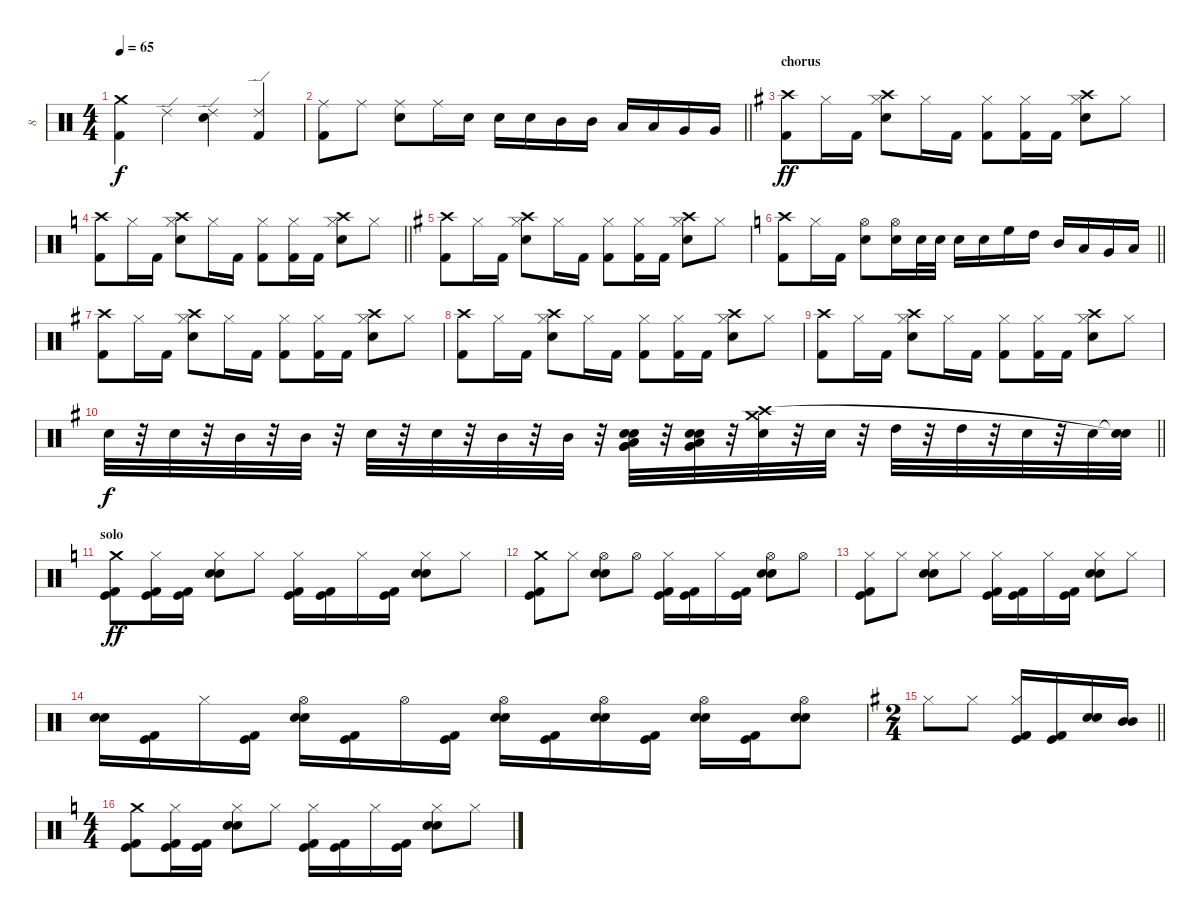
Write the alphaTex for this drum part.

\track ("8" "8") {instrument percussion}
\staff {score}
\articulation defaults
\ts (4 4)
\tempo 65
\clef neutral
\ks c
("Crash medium (hit)" "Kick (hit) 2").4{dy f} "Ride (edge) 2".4 ("Ride (edge) 2" "Electric Snare (hit)").4 ("Ride (edge) 2" "Kick (hit) 2").4 |
\barLineRight lightlight
("Ride (middle)" "Kick (hit) 2").8 "Ride (middle)".8 ("Ride (middle)" "Electric Snare (hit)").8 "Ride (middle)".16 "Electric Snare (hit)".16 "Electric Snare (hit)".16 "Electric Snare (hit)".16 "Mid Tom (hit)".16 "Mid Tom (hit)".16 "Low Tom (hit)".16 "Low Tom (hit)".16 "Very Low Tom (hit)".16 "Very Low Tom (hit)".16 |
\section ("" "chorus")
\ks eminor
("Kick (hit) 2" "Crash high (hit)").8{dy ff} "Hi-Hat (closed)".16 "Kick (hit) 2".16 ("Snare (hit) 2" "Hi-Hat (closed)" "Crash high (hit)").8 "Hi-Hat (closed)".16 "Kick (hit) 2".16 ("Kick (hit) 2" "Hi-Hat (closed)").8 ("Kick (hit) 2" "Hi-Hat (closed)").16 "Kick (hit) 2".16 ("Snare (hit) 2" "Hi-Hat (closed)" "Crash high (hit)").8 "Hi-Hat (closed)".8 |
\barLineRight lightlight
\ks c
("Kick (hit) 2" "Crash high (hit)").8 "Hi-Hat (closed)".16 "Kick (hit) 2".16 ("Snare (hit) 2" "Hi-Hat (closed)" "Crash high (hit)").8 "Hi-Hat (closed)".16 "Kick (hit) 2".16 ("Kick (hit) 2" "Hi-Hat (closed)").8 ("Kick (hit) 2" "Hi-Hat (closed)").16 "Kick (hit) 2".16 ("Snare (hit) 2" "Hi-Hat (closed)" "Crash high (hit)").8 "Hi-Hat (closed)".8 |
\ks eminor
("Kick (hit) 2" "Crash high (hit)").8 "Hi-Hat (closed)".16 "Kick (hit) 2".16 ("Snare (hit) 2" "Hi-Hat (closed)" "Crash high (hit)").8 "Hi-Hat (closed)".16 "Kick (hit) 2".16 ("Kick (hit) 2" "Hi-Hat (closed)").8 ("Kick (hit) 2" "Hi-Hat (closed)").16 "Kick (hit) 2".16 ("Snare (hit) 2" "Hi-Hat (closed)" "Crash high (hit)").8 "Hi-Hat (closed)".8 |
\barLineRight lightlight
\ks c
("Kick (hit) 2" "Crash high (hit)").8 "Hi-Hat (closed)".16 "Kick (hit) 2".16 ("Snare (hit) 2" "Hi-Hat (open)").8 ("Snare (hit) 2" "Hi-Hat (open)").16 "Snare (hit) 2".32 "Snare (hit) 2".32 "Snare (hit) 2".16 "Snare (hit) 2".16 "High Floor Tom (hit)".16 "High Tom (hit)".16 "Mid Tom (hit)".16 "Low Tom (hit)".16 "Very Low Tom (hit)".16 "Low Floor Tom (hit)".16 |
\ks eminor
("Kick (hit) 2" "Crash high (hit)").8 "Hi-Hat (closed)".16 "Kick (hit) 2".16 ("Snare (hit) 2" "Hi-Hat (closed)" "Crash high (hit)").8 "Hi-Hat (closed)".16 "Kick (hit) 2".16 ("Kick (hit) 2" "Hi-Hat (closed)").8 ("Kick (hit) 2" "Hi-Hat (closed)").16 "Kick (hit) 2".16 ("Snare (hit) 2" "Hi-Hat (closed)" "Crash high (hit)").8 "Hi-Hat (closed)".8 |
("Kick (hit) 2" "Crash high (hit)").8 "Hi-Hat (closed)".16 "Kick (hit) 2".16 ("Snare (hit) 2" "Hi-Hat (closed)" "Crash high (hit)").8 "Hi-Hat (closed)".16 "Kick (hit) 2".16 ("Kick (hit) 2" "Hi-Hat (closed)").8 ("Kick (hit) 2" "Hi-Hat (closed)").16 "Kick (hit) 2".16 ("Snare (hit) 2" "Hi-Hat (closed)" "Crash high (hit)").8 "Hi-Hat (closed)".8 |
("Kick (hit) 2" "Crash high (hit)").8 "Hi-Hat (closed)".16 "Kick (hit) 2".16 ("Snare (hit) 2" "Hi-Hat (closed)" "Crash high (hit)").8 "Hi-Hat (closed)".16 "Kick (hit) 2".16 ("Kick (hit) 2" "Hi-Hat (closed)").8 ("Kick (hit) 2" "Hi-Hat (closed)").16 "Kick (hit) 2".16 ("Snare (hit) 2" "Hi-Hat (closed)" "Crash high (hit)").8 "Hi-Hat (closed)".8 |
\barLineRight lightlight "Snare (hit) 2".32{dy f}
r.32 "Snare (hit) 2".32 r.32 "Mid Tom (hit)".32 r.32 "Mid Tom (hit)".32 r.32 "Snare (hit) 2".32 r.32 "Snare (hit) 2".32 r.32 "Mid Tom (hit)".32 r.32 "Mid Tom (hit)".32 r.32 ("Snare (hit) 2" "Electric Snare (hit)" "Low Tom (hit)" "Very Low Tom (hit)" "Very Low Tom (hit)").32 r.32 ("Snare (hit) 2" "Electric Snare (hit)" "Low Tom (hit)" "Very Low Tom (hit)" "Very Low Tom (hit)").32 r.32 ("Snare (hit) 2" "Crash high (hit)" "Crash medium (hit)").32 r.32 "Snare (hit) 2".32 r.32 "High Tom (hit)".32 r.32 "High Tom (hit)".32 r.32 "Snare (hit) 2".32 r.32 "Snare (hit) 2".32 ("Snare (hit)"{t} "Snare (hit)"{t}).32 |
\section ("" "solo")
\ks c
("Crash medium (hit)" "Kick (hit)" "Kick (hit) 2").8{dy ff} ("Hi-Hat (closed)" "Kick (hit)" "Kick (hit) 2").16 ("Kick (hit)" "Kick (hit) 2").16 ("Hi-Hat (closed)" "Snare (hit) 2" "Electric Snare (hit)").8 "Hi-Hat (closed)".8 ("Hi-Hat (closed)" "Kick (hit)" "Kick (hit) 2").16 ("Kick (hit)" "Kick (hit) 2").16 "Hi-Hat (closed)".16 ("Kick (hit)" "Kick (hit) 2").16 ("Hi-Hat (closed)" "Snare (hit) 2" "Electric Snare (hit)").8 "Hi-Hat (closed)".8 |
("Crash medium (hit)" "Kick (hit) 2" "Kick (hit)").8 "Hi-Hat (closed)".8 ("Hi-Hat (open)" "Snare (hit) 2" "Electric Snare (hit)").8 "Hi-Hat (open)".8 ("Hi-Hat (closed)" "Kick (hit)" "Kick (hit) 2").16 ("Kick (hit)" "Kick (hit) 2").16 "Hi-Hat (closed)".16 ("Kick (hit)" "Kick (hit) 2").16 ("Hi-Hat (open)" "Snare (hit) 2" "Electric Snare (hit)").8 "Hi-Hat (open)".8 |
("Hi-Hat (closed)" "Kick (hit)" "Kick (hit) 2").8 "Hi-Hat (closed)".8 ("Hi-Hat (closed)" "Snare (hit) 2" "Electric Snare (hit)").8 "Hi-Hat (closed)".8 ("Hi-Hat (closed)" "Kick (hit)" "Kick (hit) 2").16 ("Kick (hit)" "Kick (hit) 2").16 "Hi-Hat (closed)".16 ("Kick (hit)" "Kick (hit) 2").16 ("Hi-Hat (closed)" "Snare (hit) 2" "Electric Snare (hit)").8 "Hi-Hat (closed)".8 |
("Electric Snare (hit)" "Snare (hit) 2").16 ("Kick (hit)" "Kick (hit) 2").16 "Hi-Hat (closed)".16 ("Kick (hit)" "Kick (hit) 2").16 ("Hi-Hat (open)" "Snare (hit) 2" "Electric Snare (hit)").16 ("Kick (hit)" "Kick (hit) 2").16 "Hi-Hat (open)".16 ("Kick (hit)" "Kick (hit) 2").16 ("Hi-Hat (open)" "Electric Snare (hit)" "Snare (hit) 2").16 ("Kick (hit)" "Kick (hit) 2").16 ("Hi-Hat (open)" "Electric Snare (hit)" "Snare (hit) 2").16 ("Kick (hit)" "Kick (hit) 2").16 ("Hi-Hat (open)" "Electric Snare (hit)" "Snare (hit) 2").16 ("Kick (hit)" "Kick (hit) 2").16 ("Hi-Hat (open)" "Electric Snare (hit)" "Snare (hit) 2").8 |
\ts (2 4)
\barLineRight lightlight
\ks eminor "Hi-Hat (closed)".8 "Hi-Hat (closed)".8
("Hi-Hat (closed)" "Kick (hit)" "Kick (hit) 2").16 ("Kick (hit) 2" "Kick (hit)").16 ("Electric Snare (hit)" "Snare (hit) 2").16 ("Mid Tom (hit)" "Mid Tom (hit)").16 |
\ts (4 4)
\ks c
("Crash medium (hit)" "Kick (hit)" "Kick (hit) 2").8 ("Hi-Hat (closed)" "Kick (hit)" "Kick (hit) 2").16 ("Kick (hit)" "Kick (hit) 2").16 ("Hi-Hat (closed)" "Snare (hit) 2" "Electric Snare (hit)").8 "Hi-Hat (closed)".8 ("Hi-Hat (closed)" "Kick (hit)" "Kick (hit) 2").16 ("Kick (hit)" "Kick (hit) 2").16 "Hi-Hat (closed)".16 ("Kick (hit)" "Kick (hit) 2").16 ("Hi-Hat (closed)" "Snare (hit) 2" "Electric Snare (hit)").8 "Hi-Hat (closed)".8
